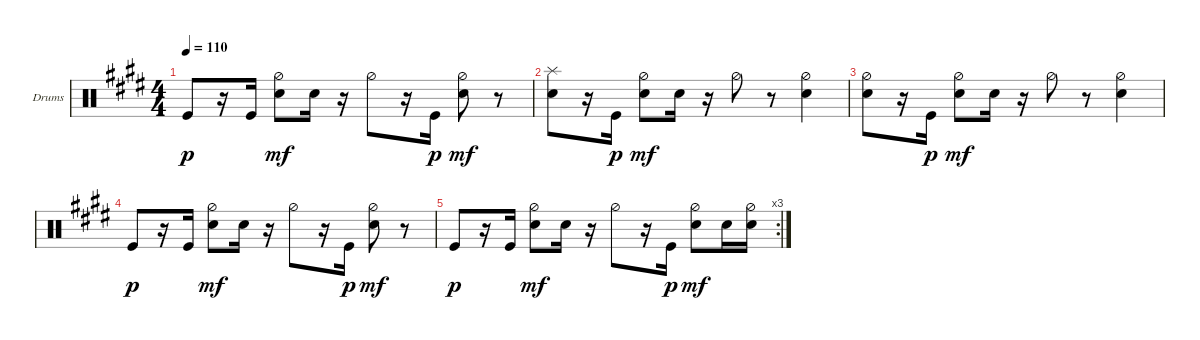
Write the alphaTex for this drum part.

\defaultSystemsLayout 4
\bracketExtendMode groupsimilarinstruments
\firstSystemTrackNameOrientation horizontal
\otherSystemsTrackNameOrientation horizontal
\track ("Drumkit" "Drums") {instrument percussion}
\staff {score}
\articulation defaults
\ts (4 4)
\tempo 110
\clef neutral
\ks c#minor "Kick (hit)".8{dy p}
r.16 "Kick (hit)".16 ("Snare (hit) 2" "Hi-Hat (half)").8{dy mf} "Snare (hit) 2".16 r.16 "Hi-Hat (half)".8 r.16 "Kick (hit)".16{dy p} ("Snare (hit) 2" "Hi-Hat (half)").8{dy mf} r.8 |
("Splash (hit)" "Snare (hit) 2").8 r.16 "Kick (hit)".16{dy p} ("Snare (hit) 2" "Hi-Hat (half)").8{dy mf} "Snare (hit) 2".16 r.16 "Hi-Hat (half)".8 r.8 ("Snare (hit) 2" "Hi-Hat (half)").4 |
("Snare (hit) 2" "Hi-Hat (half)").8 r.16 "Kick (hit)".16{dy p} ("Snare (hit) 2" "Hi-Hat (half)").8{dy mf} "Snare (hit) 2".16 r.16 "Hi-Hat (half)".8 r.8 ("Snare (hit) 2" "Hi-Hat (half)").4 |
"Kick (hit)".8{dy p} r.16 "Kick (hit)".16 ("Snare (hit) 2" "Hi-Hat (half)").8{dy mf} "Snare (hit) 2".16 r.16 "Hi-Hat (half)".8 r.16 "Kick (hit)".16{dy p} ("Snare (hit) 2" "Hi-Hat (half)").8{dy mf} r.8 |
\rc 3 "Kick (hit)".8{dy p}
r.16 "Kick (hit)".16 ("Snare (hit) 2" "Hi-Hat (half)").8{dy mf} "Snare (hit) 2".16 r.16 "Hi-Hat (half)".8 r.16 "Kick (hit)".16{dy p} ("Snare (hit) 2" "Hi-Hat (half)").8{dy mf} "Snare (hit) 2".16 ("Snare (hit) 2" "Hi-Hat (half)").16
